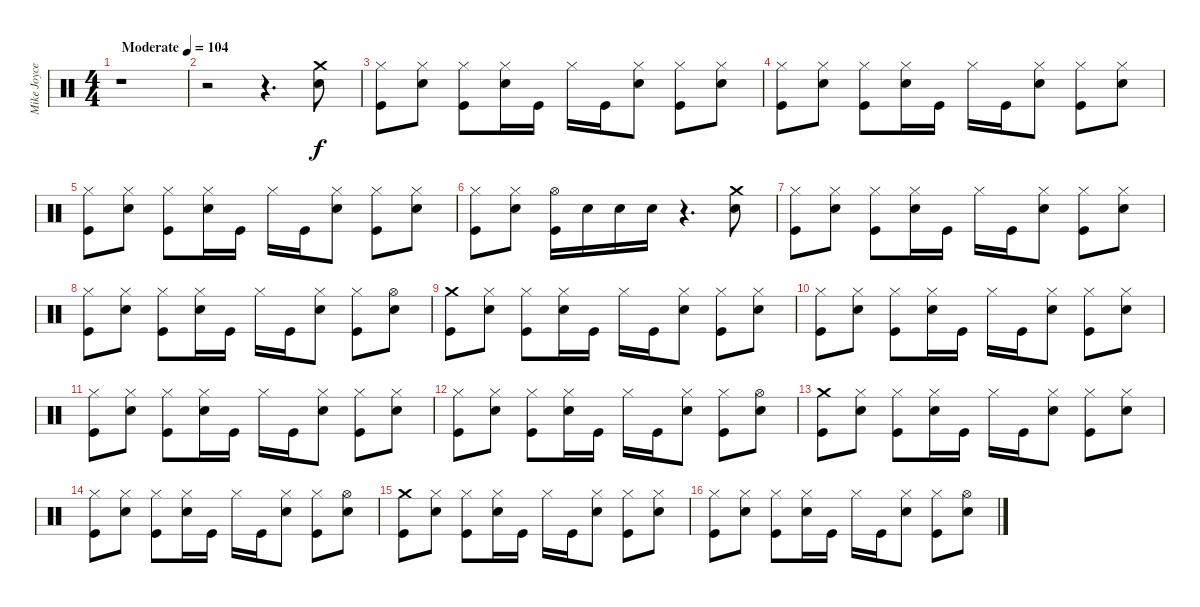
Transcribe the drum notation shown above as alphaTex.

\track ("Mike Joyce|Drums" "Mike Joyce") {instrument percussion}
\staff {score}
\articulation defaults
\ts (4 4)
\tempo (104 "Moderate")
\clef neutral
\ks c
r.1{dy f} |
r.2 r.4{d} ("Crash medium (hit)" "Snare (hit) 2").8 |
("Hi-Hat (closed)" "Kick (hit)").8 ("Hi-Hat (closed)" "Snare (hit) 2").8 ("Hi-Hat (closed)" "Kick (hit)").8 ("Hi-Hat (closed)" "Snare (hit) 2").16 "Kick (hit)".16 "Hi-Hat (closed)".16 "Kick (hit)".16 ("Hi-Hat (closed)" "Snare (hit) 2").8 ("Hi-Hat (closed)" "Kick (hit)").8 ("Hi-Hat (closed)" "Snare (hit) 2").8 |
("Hi-Hat (closed)" "Kick (hit)").8 ("Hi-Hat (closed)" "Snare (hit) 2").8 ("Hi-Hat (closed)" "Kick (hit)").8 ("Hi-Hat (closed)" "Snare (hit) 2").16 "Kick (hit)".16 "Hi-Hat (closed)".16 "Kick (hit)".16 ("Hi-Hat (closed)" "Snare (hit) 2").8 ("Hi-Hat (closed)" "Kick (hit)").8 ("Hi-Hat (closed)" "Snare (hit) 2").8 |
("Hi-Hat (closed)" "Kick (hit)").8 ("Hi-Hat (closed)" "Snare (hit) 2").8 ("Hi-Hat (closed)" "Kick (hit)").8 ("Hi-Hat (closed)" "Snare (hit) 2").16 "Kick (hit)".16 "Hi-Hat (closed)".16 "Kick (hit)".16 ("Hi-Hat (closed)" "Snare (hit) 2").8 ("Hi-Hat (closed)" "Kick (hit)").8 ("Hi-Hat (closed)" "Snare (hit) 2").8 |
("Hi-Hat (closed)" "Kick (hit)").8 ("Hi-Hat (closed)" "Snare (hit) 2").8 ("Hi-Hat (open)" "Kick (hit)").16 "Snare (hit) 2".16 "Snare (hit) 2".16 "Snare (hit) 2".16 r.4{d} ("Crash medium (hit)" "Snare (hit) 2").8 |
("Hi-Hat (closed)" "Kick (hit)").8 ("Hi-Hat (closed)" "Snare (hit) 2").8 ("Hi-Hat (closed)" "Kick (hit)").8 ("Hi-Hat (closed)" "Snare (hit) 2").16 "Kick (hit)".16 "Hi-Hat (closed)".16 "Kick (hit)".16 ("Hi-Hat (closed)" "Snare (hit) 2").8 ("Hi-Hat (closed)" "Kick (hit)").8 ("Hi-Hat (closed)" "Snare (hit) 2").8 |
("Hi-Hat (closed)" "Kick (hit)").8 ("Hi-Hat (closed)" "Snare (hit) 2").8 ("Hi-Hat (closed)" "Kick (hit)").8 ("Hi-Hat (closed)" "Snare (hit) 2").16 "Kick (hit)".16 "Hi-Hat (closed)".16 "Kick (hit)".16 ("Hi-Hat (closed)" "Snare (hit) 2").8 ("Hi-Hat (closed)" "Kick (hit)").8 ("Hi-Hat (open)" "Snare (hit) 2").8 |
("Crash medium (hit)" "Kick (hit)").8 ("Hi-Hat (closed)" "Snare (hit) 2").8 ("Hi-Hat (closed)" "Kick (hit)").8 ("Hi-Hat (closed)" "Snare (hit) 2").16 "Kick (hit)".16 "Hi-Hat (closed)".16 "Kick (hit)".16 ("Hi-Hat (closed)" "Snare (hit) 2").8 ("Hi-Hat (closed)" "Kick (hit)").8 ("Hi-Hat (closed)" "Snare (hit) 2").8 |
("Hi-Hat (closed)" "Kick (hit)").8 ("Hi-Hat (closed)" "Snare (hit) 2").8 ("Hi-Hat (closed)" "Kick (hit)").8 ("Hi-Hat (closed)" "Snare (hit) 2").16 "Kick (hit)".16 "Hi-Hat (closed)".16 "Kick (hit)".16 ("Hi-Hat (closed)" "Snare (hit) 2").8 ("Hi-Hat (closed)" "Kick (hit)").8 ("Hi-Hat (closed)" "Snare (hit) 2").8 |
("Hi-Hat (closed)" "Kick (hit)").8 ("Hi-Hat (closed)" "Snare (hit) 2").8 ("Hi-Hat (closed)" "Kick (hit)").8 ("Hi-Hat (closed)" "Snare (hit) 2").16 "Kick (hit)".16 "Hi-Hat (closed)".16 "Kick (hit)".16 ("Hi-Hat (closed)" "Snare (hit) 2").8 ("Hi-Hat (closed)" "Kick (hit)").8 ("Hi-Hat (closed)" "Snare (hit) 2").8 |
("Hi-Hat (closed)" "Kick (hit)").8 ("Hi-Hat (closed)" "Snare (hit) 2").8 ("Hi-Hat (closed)" "Kick (hit)").8 ("Hi-Hat (closed)" "Snare (hit) 2").16 "Kick (hit)".16 "Hi-Hat (closed)".16 "Kick (hit)".16 ("Hi-Hat (closed)" "Snare (hit) 2").8 ("Hi-Hat (closed)" "Kick (hit)").8 ("Hi-Hat (open)" "Snare (hit) 2").8 |
("Crash medium (hit)" "Kick (hit)").8 ("Hi-Hat (closed)" "Snare (hit) 2").8 ("Hi-Hat (closed)" "Kick (hit)").8 ("Hi-Hat (closed)" "Snare (hit) 2").16 "Kick (hit)".16 "Hi-Hat (closed)".16 "Kick (hit)".16 ("Hi-Hat (closed)" "Snare (hit) 2").8 ("Hi-Hat (closed)" "Kick (hit)").8 ("Hi-Hat (closed)" "Snare (hit) 2").8 |
("Hi-Hat (closed)" "Kick (hit)").8 ("Hi-Hat (closed)" "Snare (hit) 2").8 ("Hi-Hat (closed)" "Kick (hit)").8 ("Hi-Hat (closed)" "Snare (hit) 2").16 "Kick (hit)".16 "Hi-Hat (closed)".16 "Kick (hit)".16 ("Hi-Hat (closed)" "Snare (hit) 2").8 ("Hi-Hat (closed)" "Kick (hit)").8 ("Hi-Hat (open)" "Snare (hit) 2").8 |
("Crash medium (hit)" "Kick (hit)").8 ("Hi-Hat (closed)" "Snare (hit) 2").8 ("Hi-Hat (closed)" "Kick (hit)").8 ("Hi-Hat (closed)" "Snare (hit) 2").16 "Kick (hit)".16 "Hi-Hat (closed)".16 "Kick (hit)".16 ("Hi-Hat (closed)" "Snare (hit) 2").8 ("Hi-Hat (closed)" "Kick (hit)").8 ("Hi-Hat (closed)" "Snare (hit) 2").8 |
("Hi-Hat (closed)" "Kick (hit)").8 ("Hi-Hat (closed)" "Snare (hit) 2").8 ("Hi-Hat (closed)" "Kick (hit)").8 ("Hi-Hat (closed)" "Snare (hit) 2").16 "Kick (hit)".16 "Hi-Hat (closed)".16 "Kick (hit)".16 ("Hi-Hat (closed)" "Snare (hit) 2").8 ("Hi-Hat (closed)" "Kick (hit)").8 ("Hi-Hat (open)" "Snare (hit) 2").8
